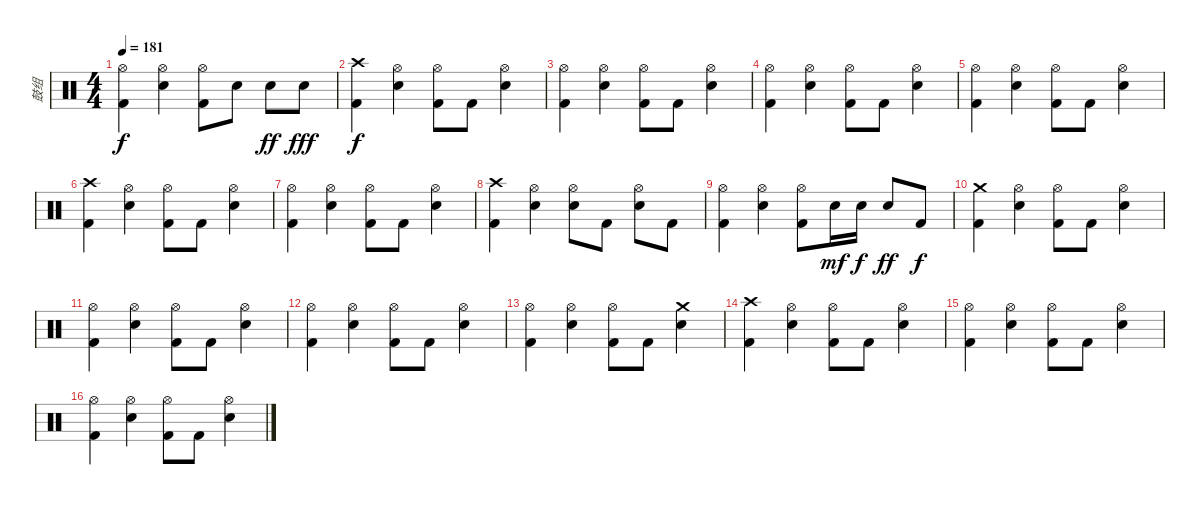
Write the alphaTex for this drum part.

\track ("鼓组" "鼓组") {instrument percussion}
\staff {score}
\articulation defaults
\ts (4 4)
\tempo 181
\clef neutral
\ks c
("Hi-Hat (open)" "Kick (hit) 2").4{dy f} ("Hi-Hat (open)" "Snare (hit) 2").4 ("Hi-Hat (open)" "Kick (hit) 2").8 "Snare (hit) 2".8 "Snare (hit) 2".8{dy ff} "Snare (hit) 2".8{dy fff} |
("Crash high (hit)" "Kick (hit) 2").4{dy f} ("Hi-Hat (open)" "Snare (hit) 2").4 ("Hi-Hat (open)" "Kick (hit) 2").8 "Kick (hit) 2".8 ("Hi-Hat (open)" "Snare (hit) 2").4 |
("Hi-Hat (open)" "Kick (hit) 2").4 ("Hi-Hat (open)" "Snare (hit) 2").4 ("Hi-Hat (open)" "Kick (hit) 2").8 "Kick (hit) 2".8 ("Hi-Hat (open)" "Snare (hit) 2").4 |
("Hi-Hat (open)" "Kick (hit) 2").4 ("Hi-Hat (open)" "Snare (hit) 2").4 ("Hi-Hat (open)" "Kick (hit) 2").8 "Kick (hit) 2".8 ("Hi-Hat (open)" "Snare (hit) 2").4 |
("Hi-Hat (open)" "Kick (hit) 2").4 ("Hi-Hat (open)" "Snare (hit) 2").4 ("Hi-Hat (open)" "Kick (hit) 2").8 "Kick (hit) 2".8 ("Hi-Hat (open)" "Snare (hit) 2").4 |
("Crash high (hit)" "Kick (hit) 2").4 ("Hi-Hat (open)" "Snare (hit) 2").4 ("Hi-Hat (open)" "Kick (hit) 2").8 "Kick (hit) 2".8 ("Hi-Hat (open)" "Snare (hit) 2").4 |
("Hi-Hat (open)" "Kick (hit) 2").4 ("Hi-Hat (open)" "Snare (hit) 2").4 ("Hi-Hat (open)" "Kick (hit) 2").8 "Kick (hit) 2".8 ("Hi-Hat (open)" "Snare (hit) 2").4 |
("Crash high (hit)" "Kick (hit) 2").4 ("Hi-Hat (open)" "Snare (hit) 2").4 ("Hi-Hat (open)" "Snare (hit) 2").8 "Kick (hit) 2".8 ("Hi-Hat (open)" "Snare (hit) 2").8 "Kick (hit) 2".8 |
("Hi-Hat (open)" "Kick (hit) 2").4 ("Hi-Hat (open)" "Snare (hit) 2").4 ("Hi-Hat (open)" "Kick (hit) 2").8 "Snare (hit) 2".16{dy mf} "Snare (hit) 2".16{dy f} "Snare (hit) 2".8{dy ff} "Kick (hit) 2".8{dy f} |
("Crash medium (hit)" "Kick (hit) 2").4 ("Hi-Hat (open)" "Snare (hit) 2").4 ("Hi-Hat (open)" "Kick (hit) 2").8 "Kick (hit) 2".8 ("Hi-Hat (open)" "Snare (hit) 2").4 |
("Hi-Hat (open)" "Kick (hit) 2").4 ("Hi-Hat (open)" "Snare (hit) 2").4 ("Hi-Hat (open)" "Kick (hit) 2").8 "Kick (hit) 2".8 ("Hi-Hat (open)" "Snare (hit) 2").4 |
("Hi-Hat (open)" "Kick (hit) 2").4 ("Hi-Hat (open)" "Snare (hit) 2").4 ("Hi-Hat (open)" "Kick (hit) 2").8 "Kick (hit) 2".8 ("Hi-Hat (open)" "Snare (hit) 2").4 |
("Hi-Hat (open)" "Kick (hit) 2").4 ("Hi-Hat (open)" "Snare (hit) 2").4 ("Hi-Hat (open)" "Kick (hit) 2").8 "Kick (hit) 2".8 ("Crash medium (hit)" "Snare (hit) 2").4 |
("Crash high (hit)" "Kick (hit) 2").4 ("Hi-Hat (open)" "Snare (hit) 2").4 ("Hi-Hat (open)" "Kick (hit) 2").8 "Kick (hit) 2".8 ("Hi-Hat (open)" "Snare (hit) 2").4 |
("Hi-Hat (open)" "Kick (hit) 2").4 ("Hi-Hat (open)" "Snare (hit) 2").4 ("Hi-Hat (open)" "Kick (hit) 2").8 "Kick (hit) 2".8 ("Hi-Hat (open)" "Snare (hit) 2").4 |
("Hi-Hat (open)" "Kick (hit) 2").4 ("Hi-Hat (open)" "Snare (hit) 2").4 ("Hi-Hat (open)" "Kick (hit) 2").8 "Kick (hit) 2".8 ("Hi-Hat (open)" "Snare (hit) 2").4
